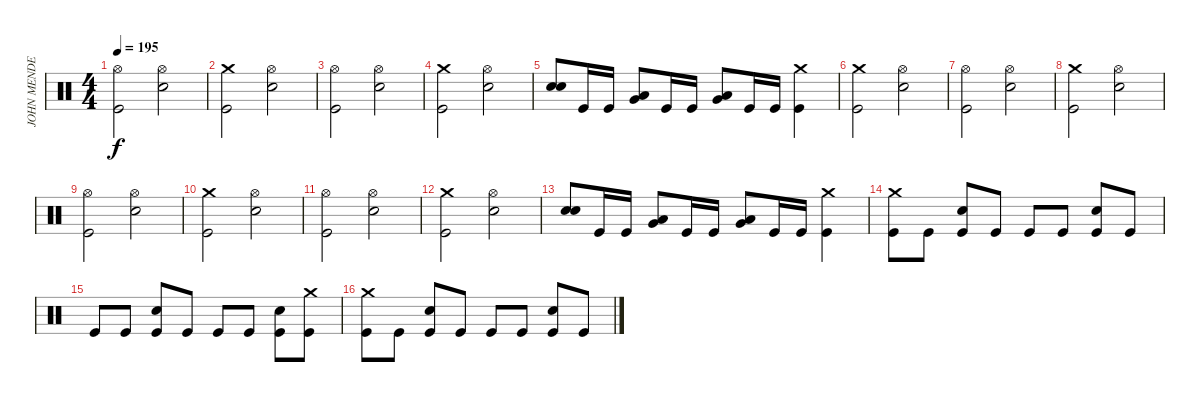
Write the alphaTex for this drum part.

\track ("JOHN MENDESSSSSSS" "JOHN MENDE") {instrument percussion}
\staff {score}
\articulation defaults
\ts (4 4)
\tempo 195
\clef neutral
\ks c
("Kick (hit)" "Hi-Hat (open)").2{dy f} ("Snare (hit) 2" "Hi-Hat (open)").2 |
("Kick (hit)" "Crash medium (hit)").2 ("Snare (hit) 2" "Hi-Hat (open)").2 |
("Kick (hit)" "Hi-Hat (open)").2 ("Snare (hit) 2" "Hi-Hat (open)").2 |
("Kick (hit)" "Crash medium (hit)").2 ("Snare (hit) 2" "Hi-Hat (open)").2 |
("Snare (hit) 2" "Snare (hit) 2").8 "Kick (hit)".16 "Kick (hit)".16 ("Low Tom (hit)" "Very Low Tom (hit)").8 "Kick (hit)".16 "Kick (hit)".16 ("Very Low Tom (hit)" "Low Floor Tom (hit)").8 "Kick (hit)".16 "Kick (hit)".16 ("Kick (hit)" "Crash medium (hit)").4 |
("Kick (hit)" "Crash medium (hit)").2 ("Snare (hit) 2" "Hi-Hat (open)").2 |
("Kick (hit)" "Hi-Hat (open)").2 ("Snare (hit) 2" "Hi-Hat (open)").2 |
("Kick (hit)" "Crash medium (hit)").2 ("Snare (hit) 2" "Hi-Hat (open)").2 |
("Kick (hit)" "Hi-Hat (open)").2 ("Snare (hit) 2" "Hi-Hat (open)").2 |
("Kick (hit)" "Crash medium (hit)").2 ("Snare (hit) 2" "Hi-Hat (open)").2 |
("Kick (hit)" "Hi-Hat (open)").2 ("Snare (hit) 2" "Hi-Hat (open)").2 |
("Kick (hit)" "Crash medium (hit)").2 ("Snare (hit) 2" "Hi-Hat (open)").2 |
("Snare (hit) 2" "Snare (hit) 2").8 "Kick (hit)".16 "Kick (hit)".16 ("Low Tom (hit)" "Very Low Tom (hit)").8 "Kick (hit)".16 "Kick (hit)".16 ("Very Low Tom (hit)" "Low Floor Tom (hit)").8 "Kick (hit)".16 "Kick (hit)".16 ("Kick (hit)" "Crash medium (hit)").4 |
("Kick (hit)" "Crash medium (hit)").8 "Kick (hit)".8 ("Kick (hit)" "Snare (hit) 2").8 "Kick (hit)".8 "Kick (hit)".8 "Kick (hit)".8 ("Kick (hit)" "Snare (hit) 2").8 "Kick (hit)".8 |
"Kick (hit)".8 "Kick (hit)".8 ("Kick (hit)" "Snare (hit) 2").8 "Kick (hit)".8 "Kick (hit)".8 "Kick (hit)".8 ("Kick (hit)" "Snare (hit) 2").8 ("Kick (hit)" "Crash medium (hit)").8 |
("Kick (hit)" "Crash medium (hit)").8 "Kick (hit)".8 ("Kick (hit)" "Snare (hit) 2").8 "Kick (hit)".8 "Kick (hit)".8 "Kick (hit)".8 ("Kick (hit)" "Snare (hit) 2").8 "Kick (hit)".8
